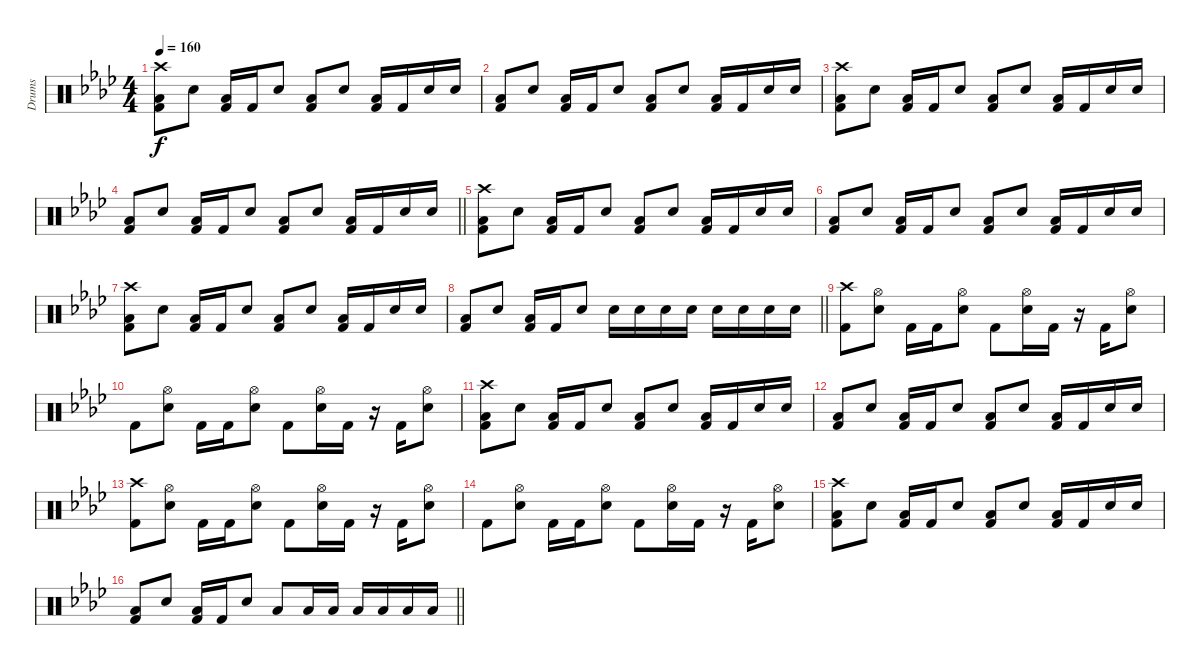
\track ("Drums" "Drums") {instrument percussion}
\staff {score}
\articulation defaults
\ts (4 4)
\tempo 160
\clef neutral
\ks ab
("Crash high (hit)" "Low Floor Tom (hit)" "Kick (hit) 2").8{dy f} "Electric Snare (hit)".8 ("Low Floor Tom (hit)" "Kick (hit) 2").16 "Kick (hit) 2".16 "Electric Snare (hit)".8 ("Low Floor Tom (hit)" "Kick (hit) 2").8 "Electric Snare (hit)".8 ("Low Floor Tom (hit)" "Kick (hit) 2").16 "Kick (hit) 2".16 "Electric Snare (hit)".16 "Electric Snare (hit)".16 |
("Low Floor Tom (hit)" "Kick (hit) 2").8 "Electric Snare (hit)".8 ("Low Floor Tom (hit)" "Kick (hit) 2").16 "Kick (hit) 2".16 "Electric Snare (hit)".8 ("Low Floor Tom (hit)" "Kick (hit) 2").8 "Electric Snare (hit)".8 ("Low Floor Tom (hit)" "Kick (hit) 2").16 "Kick (hit) 2".16 "Electric Snare (hit)".16 "Electric Snare (hit)".16 |
("Crash high (hit)" "Low Floor Tom (hit)" "Kick (hit) 2").8 "Electric Snare (hit)".8 ("Low Floor Tom (hit)" "Kick (hit) 2").16 "Kick (hit) 2".16 "Electric Snare (hit)".8 ("Low Floor Tom (hit)" "Kick (hit) 2").8 "Electric Snare (hit)".8 ("Low Floor Tom (hit)" "Kick (hit) 2").16 "Kick (hit) 2".16 "Electric Snare (hit)".16 "Electric Snare (hit)".16 |
\barLineRight lightlight
("Low Floor Tom (hit)" "Kick (hit) 2").8 "Electric Snare (hit)".8 ("Low Floor Tom (hit)" "Kick (hit) 2").16 "Kick (hit) 2".16 "Electric Snare (hit)".8 ("Low Floor Tom (hit)" "Kick (hit) 2").8 "Electric Snare (hit)".8 ("Low Floor Tom (hit)" "Kick (hit) 2").16 "Kick (hit) 2".16 "Electric Snare (hit)".16 "Electric Snare (hit)".16 |
("Crash high (hit)" "Low Floor Tom (hit)" "Kick (hit) 2").8 "Electric Snare (hit)".8 ("Low Floor Tom (hit)" "Kick (hit) 2").16 "Kick (hit) 2".16 "Electric Snare (hit)".8 ("Low Floor Tom (hit)" "Kick (hit) 2").8 "Electric Snare (hit)".8 ("Low Floor Tom (hit)" "Kick (hit) 2").16 "Kick (hit) 2".16 "Electric Snare (hit)".16 "Electric Snare (hit)".16 |
("Low Floor Tom (hit)" "Kick (hit) 2").8 "Electric Snare (hit)".8 ("Low Floor Tom (hit)" "Kick (hit) 2").16 "Kick (hit) 2".16 "Electric Snare (hit)".8 ("Low Floor Tom (hit)" "Kick (hit) 2").8 "Electric Snare (hit)".8 ("Low Floor Tom (hit)" "Kick (hit) 2").16 "Kick (hit) 2".16 "Electric Snare (hit)".16 "Electric Snare (hit)".16 |
("Crash high (hit)" "Low Floor Tom (hit)" "Kick (hit) 2").8 "Electric Snare (hit)".8 ("Low Floor Tom (hit)" "Kick (hit) 2").16 "Kick (hit) 2".16 "Electric Snare (hit)".8 ("Low Floor Tom (hit)" "Kick (hit) 2").8 "Electric Snare (hit)".8 ("Low Floor Tom (hit)" "Kick (hit) 2").16 "Kick (hit) 2".16 "Electric Snare (hit)".16 "Electric Snare (hit)".16 |
\barLineRight lightlight
("Low Floor Tom (hit)" "Kick (hit) 2").8 "Electric Snare (hit)".8 ("Low Floor Tom (hit)" "Kick (hit) 2").16 "Kick (hit) 2".16 "Electric Snare (hit)".8 "Electric Snare (hit)".16 "Electric Snare (hit)".16 "Electric Snare (hit)".16 "Electric Snare (hit)".16 "Electric Snare (hit)".16 "Electric Snare (hit)".16 "Electric Snare (hit)".16 "Electric Snare (hit)".16 |
("Crash high (hit)" "Kick (hit) 2").8 ("Hi-Hat (open)" "Electric Snare (hit)").8 "Kick (hit) 2".16 "Kick (hit) 2".16 ("Hi-Hat (open)" "Electric Snare (hit)").8 "Kick (hit) 2".8 ("Hi-Hat (open)" "Electric Snare (hit)").16 "Kick (hit) 2".16 r.16 "Kick (hit) 2".16 ("Hi-Hat (open)" "Electric Snare (hit)").8 |
"Kick (hit) 2".8 ("Hi-Hat (open)" "Electric Snare (hit)").8 "Kick (hit) 2".16 "Kick (hit) 2".16 ("Hi-Hat (open)" "Electric Snare (hit)").8 "Kick (hit) 2".8 ("Hi-Hat (open)" "Electric Snare (hit)").16 "Kick (hit) 2".16 r.16 "Kick (hit) 2".16 ("Hi-Hat (open)" "Electric Snare (hit)").8 |
("Crash high (hit)" "Low Floor Tom (hit)" "Kick (hit) 2").8 "Electric Snare (hit)".8 ("Low Floor Tom (hit)" "Kick (hit) 2").16 "Kick (hit) 2".16 "Electric Snare (hit)".8 ("Low Floor Tom (hit)" "Kick (hit) 2").8 "Electric Snare (hit)".8 ("Low Floor Tom (hit)" "Kick (hit) 2").16 "Kick (hit) 2".16 "Electric Snare (hit)".16 "Electric Snare (hit)".16 |
("Low Floor Tom (hit)" "Kick (hit) 2").8 "Electric Snare (hit)".8 ("Low Floor Tom (hit)" "Kick (hit) 2").16 "Kick (hit) 2".16 "Electric Snare (hit)".8 ("Low Floor Tom (hit)" "Kick (hit) 2").8 "Electric Snare (hit)".8 ("Low Floor Tom (hit)" "Kick (hit) 2").16 "Kick (hit) 2".16 "Electric Snare (hit)".16 "Electric Snare (hit)".16 |
("Crash high (hit)" "Kick (hit) 2").8 ("Hi-Hat (open)" "Electric Snare (hit)").8 "Kick (hit) 2".16 "Kick (hit) 2".16 ("Hi-Hat (open)" "Electric Snare (hit)").8 "Kick (hit) 2".8 ("Hi-Hat (open)" "Electric Snare (hit)").16 "Kick (hit) 2".16 r.16 "Kick (hit) 2".16 ("Hi-Hat (open)" "Electric Snare (hit)").8 |
"Kick (hit) 2".8 ("Hi-Hat (open)" "Electric Snare (hit)").8 "Kick (hit) 2".16 "Kick (hit) 2".16 ("Hi-Hat (open)" "Electric Snare (hit)").8 "Kick (hit) 2".8 ("Hi-Hat (open)" "Electric Snare (hit)").16 "Kick (hit) 2".16 r.16 "Kick (hit) 2".16 ("Hi-Hat (open)" "Electric Snare (hit)").8 |
("Crash high (hit)" "Low Floor Tom (hit)" "Kick (hit) 2").8 "Electric Snare (hit)".8 ("Low Floor Tom (hit)" "Kick (hit) 2").16 "Kick (hit) 2".16 "Electric Snare (hit)".8 ("Low Floor Tom (hit)" "Kick (hit) 2").8 "Electric Snare (hit)".8 ("Low Floor Tom (hit)" "Kick (hit) 2").16 "Kick (hit) 2".16 "Electric Snare (hit)".16 "Electric Snare (hit)".16 |
\barLineRight lightlight
("Low Floor Tom (hit)" "Kick (hit) 2").8 "Electric Snare (hit)".8 ("Low Floor Tom (hit)" "Kick (hit) 2").16 "Kick (hit) 2".16 "Electric Snare (hit)".8 "Low Floor Tom (hit)".8 "Low Floor Tom (hit)".16 "Low Floor Tom (hit)".16 "Low Floor Tom (hit)".16 "Low Floor Tom (hit)".16 "Low Floor Tom (hit)".16 "Low Floor Tom (hit)".16
